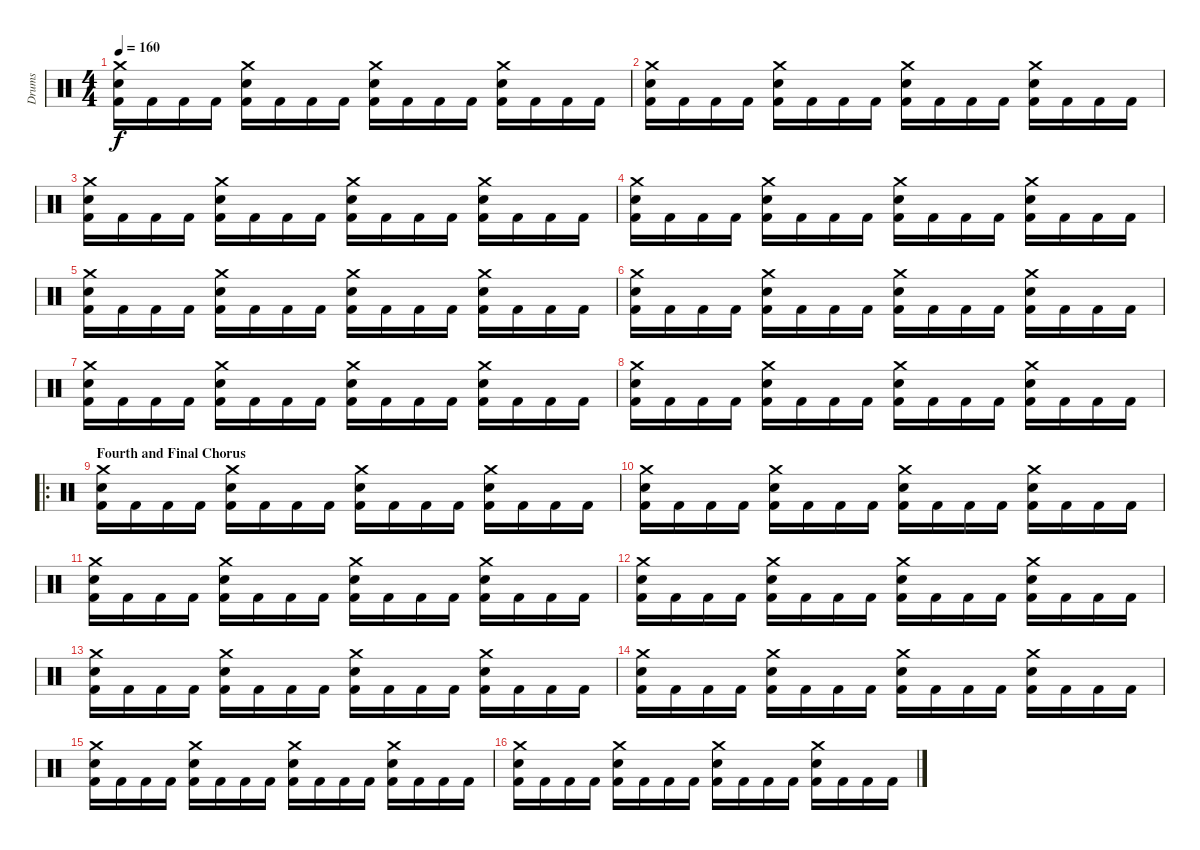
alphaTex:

\track ("Drums" "Drums") {instrument percussion}
\staff {score}
\articulation defaults
\ts (4 4)
\tempo 160
\clef neutral
\ks c
("Crash medium (hit)" "Electric Snare (hit)" "Kick (hit) 2").16{dy f} "Kick (hit) 2".16 "Kick (hit) 2".16 "Kick (hit) 2".16 ("Crash medium (hit)" "Electric Snare (hit)" "Kick (hit) 2").16 "Kick (hit) 2".16 "Kick (hit) 2".16 "Kick (hit) 2".16 ("Crash medium (hit)" "Electric Snare (hit)" "Kick (hit) 2").16 "Kick (hit) 2".16 "Kick (hit) 2".16 "Kick (hit) 2".16 ("Crash medium (hit)" "Electric Snare (hit)" "Kick (hit) 2").16 "Kick (hit) 2".16 "Kick (hit) 2".16 "Kick (hit) 2".16 |
("Crash medium (hit)" "Electric Snare (hit)" "Kick (hit) 2").16 "Kick (hit) 2".16 "Kick (hit) 2".16 "Kick (hit) 2".16 ("Crash medium (hit)" "Electric Snare (hit)" "Kick (hit) 2").16 "Kick (hit) 2".16 "Kick (hit) 2".16 "Kick (hit) 2".16 ("Crash medium (hit)" "Electric Snare (hit)" "Kick (hit) 2").16 "Kick (hit) 2".16 "Kick (hit) 2".16 "Kick (hit) 2".16 ("Crash medium (hit)" "Electric Snare (hit)" "Kick (hit) 2").16 "Kick (hit) 2".16 "Kick (hit) 2".16 "Kick (hit) 2".16 |
("Crash medium (hit)" "Electric Snare (hit)" "Kick (hit) 2").16 "Kick (hit) 2".16 "Kick (hit) 2".16 "Kick (hit) 2".16 ("Crash medium (hit)" "Electric Snare (hit)" "Kick (hit) 2").16 "Kick (hit) 2".16 "Kick (hit) 2".16 "Kick (hit) 2".16 ("Crash medium (hit)" "Electric Snare (hit)" "Kick (hit) 2").16 "Kick (hit) 2".16 "Kick (hit) 2".16 "Kick (hit) 2".16 ("Crash medium (hit)" "Electric Snare (hit)" "Kick (hit) 2").16 "Kick (hit) 2".16 "Kick (hit) 2".16 "Kick (hit) 2".16 |
("Crash medium (hit)" "Electric Snare (hit)" "Kick (hit) 2").16 "Kick (hit) 2".16 "Kick (hit) 2".16 "Kick (hit) 2".16 ("Crash medium (hit)" "Electric Snare (hit)" "Kick (hit) 2").16 "Kick (hit) 2".16 "Kick (hit) 2".16 "Kick (hit) 2".16 ("Crash medium (hit)" "Electric Snare (hit)" "Kick (hit) 2").16 "Kick (hit) 2".16 "Kick (hit) 2".16 "Kick (hit) 2".16 ("Crash medium (hit)" "Electric Snare (hit)" "Kick (hit) 2").16 "Kick (hit) 2".16 "Kick (hit) 2".16 "Kick (hit) 2".16 |
("Crash medium (hit)" "Electric Snare (hit)" "Kick (hit) 2").16 "Kick (hit) 2".16 "Kick (hit) 2".16 "Kick (hit) 2".16 ("Crash medium (hit)" "Electric Snare (hit)" "Kick (hit) 2").16 "Kick (hit) 2".16 "Kick (hit) 2".16 "Kick (hit) 2".16 ("Crash medium (hit)" "Electric Snare (hit)" "Kick (hit) 2").16 "Kick (hit) 2".16 "Kick (hit) 2".16 "Kick (hit) 2".16 ("Crash medium (hit)" "Electric Snare (hit)" "Kick (hit) 2").16 "Kick (hit) 2".16 "Kick (hit) 2".16 "Kick (hit) 2".16 |
("Crash medium (hit)" "Electric Snare (hit)" "Kick (hit) 2").16 "Kick (hit) 2".16 "Kick (hit) 2".16 "Kick (hit) 2".16 ("Crash medium (hit)" "Electric Snare (hit)" "Kick (hit) 2").16 "Kick (hit) 2".16 "Kick (hit) 2".16 "Kick (hit) 2".16 ("Crash medium (hit)" "Electric Snare (hit)" "Kick (hit) 2").16 "Kick (hit) 2".16 "Kick (hit) 2".16 "Kick (hit) 2".16 ("Crash medium (hit)" "Electric Snare (hit)" "Kick (hit) 2").16 "Kick (hit) 2".16 "Kick (hit) 2".16 "Kick (hit) 2".16 |
("Crash medium (hit)" "Electric Snare (hit)" "Kick (hit) 2").16 "Kick (hit) 2".16 "Kick (hit) 2".16 "Kick (hit) 2".16 ("Crash medium (hit)" "Electric Snare (hit)" "Kick (hit) 2").16 "Kick (hit) 2".16 "Kick (hit) 2".16 "Kick (hit) 2".16 ("Crash medium (hit)" "Electric Snare (hit)" "Kick (hit) 2").16 "Kick (hit) 2".16 "Kick (hit) 2".16 "Kick (hit) 2".16 ("Crash medium (hit)" "Electric Snare (hit)" "Kick (hit) 2").16 "Kick (hit) 2".16 "Kick (hit) 2".16 "Kick (hit) 2".16 |
("Crash medium (hit)" "Electric Snare (hit)" "Kick (hit) 2").16 "Kick (hit) 2".16 "Kick (hit) 2".16 "Kick (hit) 2".16 ("Crash medium (hit)" "Electric Snare (hit)" "Kick (hit) 2").16 "Kick (hit) 2".16 "Kick (hit) 2".16 "Kick (hit) 2".16 ("Crash medium (hit)" "Electric Snare (hit)" "Kick (hit) 2").16 "Kick (hit) 2".16 "Kick (hit) 2".16 "Kick (hit) 2".16 ("Crash medium (hit)" "Electric Snare (hit)" "Kick (hit) 2").16 "Kick (hit) 2".16 "Kick (hit) 2".16 "Kick (hit) 2".16 |
\ro
\section ("" "Fourth and Final Chorus")
("Crash medium (hit)" "Electric Snare (hit)" "Kick (hit) 2").16 "Kick (hit) 2".16 "Kick (hit) 2".16 "Kick (hit) 2".16 ("Crash medium (hit)" "Electric Snare (hit)" "Kick (hit) 2").16 "Kick (hit) 2".16 "Kick (hit) 2".16 "Kick (hit) 2".16 ("Crash medium (hit)" "Electric Snare (hit)" "Kick (hit) 2").16 "Kick (hit) 2".16 "Kick (hit) 2".16 "Kick (hit) 2".16 ("Crash medium (hit)" "Electric Snare (hit)" "Kick (hit) 2").16 "Kick (hit) 2".16 "Kick (hit) 2".16 "Kick (hit) 2".16 |
("Crash medium (hit)" "Electric Snare (hit)" "Kick (hit) 2").16 "Kick (hit) 2".16 "Kick (hit) 2".16 "Kick (hit) 2".16 ("Crash medium (hit)" "Electric Snare (hit)" "Kick (hit) 2").16 "Kick (hit) 2".16 "Kick (hit) 2".16 "Kick (hit) 2".16 ("Crash medium (hit)" "Electric Snare (hit)" "Kick (hit) 2").16 "Kick (hit) 2".16 "Kick (hit) 2".16 "Kick (hit) 2".16 ("Crash medium (hit)" "Electric Snare (hit)" "Kick (hit) 2").16 "Kick (hit) 2".16 "Kick (hit) 2".16 "Kick (hit) 2".16 |
("Crash medium (hit)" "Electric Snare (hit)" "Kick (hit) 2").16 "Kick (hit) 2".16 "Kick (hit) 2".16 "Kick (hit) 2".16 ("Crash medium (hit)" "Electric Snare (hit)" "Kick (hit) 2").16 "Kick (hit) 2".16 "Kick (hit) 2".16 "Kick (hit) 2".16 ("Crash medium (hit)" "Electric Snare (hit)" "Kick (hit) 2").16 "Kick (hit) 2".16 "Kick (hit) 2".16 "Kick (hit) 2".16 ("Crash medium (hit)" "Electric Snare (hit)" "Kick (hit) 2").16 "Kick (hit) 2".16 "Kick (hit) 2".16 "Kick (hit) 2".16 |
("Crash medium (hit)" "Electric Snare (hit)" "Kick (hit) 2").16 "Kick (hit) 2".16 "Kick (hit) 2".16 "Kick (hit) 2".16 ("Crash medium (hit)" "Electric Snare (hit)" "Kick (hit) 2").16 "Kick (hit) 2".16 "Kick (hit) 2".16 "Kick (hit) 2".16 ("Crash medium (hit)" "Electric Snare (hit)" "Kick (hit) 2").16 "Kick (hit) 2".16 "Kick (hit) 2".16 "Kick (hit) 2".16 ("Crash medium (hit)" "Electric Snare (hit)" "Kick (hit) 2").16 "Kick (hit) 2".16 "Kick (hit) 2".16 "Kick (hit) 2".16 |
("Crash medium (hit)" "Electric Snare (hit)" "Kick (hit) 2").16 "Kick (hit) 2".16 "Kick (hit) 2".16 "Kick (hit) 2".16 ("Crash medium (hit)" "Electric Snare (hit)" "Kick (hit) 2").16 "Kick (hit) 2".16 "Kick (hit) 2".16 "Kick (hit) 2".16 ("Crash medium (hit)" "Electric Snare (hit)" "Kick (hit) 2").16 "Kick (hit) 2".16 "Kick (hit) 2".16 "Kick (hit) 2".16 ("Crash medium (hit)" "Electric Snare (hit)" "Kick (hit) 2").16 "Kick (hit) 2".16 "Kick (hit) 2".16 "Kick (hit) 2".16 |
("Crash medium (hit)" "Electric Snare (hit)" "Kick (hit) 2").16 "Kick (hit) 2".16 "Kick (hit) 2".16 "Kick (hit) 2".16 ("Crash medium (hit)" "Electric Snare (hit)" "Kick (hit) 2").16 "Kick (hit) 2".16 "Kick (hit) 2".16 "Kick (hit) 2".16 ("Crash medium (hit)" "Electric Snare (hit)" "Kick (hit) 2").16 "Kick (hit) 2".16 "Kick (hit) 2".16 "Kick (hit) 2".16 ("Crash medium (hit)" "Electric Snare (hit)" "Kick (hit) 2").16 "Kick (hit) 2".16 "Kick (hit) 2".16 "Kick (hit) 2".16 |
("Crash medium (hit)" "Electric Snare (hit)" "Kick (hit) 2").16 "Kick (hit) 2".16 "Kick (hit) 2".16 "Kick (hit) 2".16 ("Crash medium (hit)" "Electric Snare (hit)" "Kick (hit) 2").16 "Kick (hit) 2".16 "Kick (hit) 2".16 "Kick (hit) 2".16 ("Crash medium (hit)" "Electric Snare (hit)" "Kick (hit) 2").16 "Kick (hit) 2".16 "Kick (hit) 2".16 "Kick (hit) 2".16 ("Crash medium (hit)" "Electric Snare (hit)" "Kick (hit) 2").16 "Kick (hit) 2".16 "Kick (hit) 2".16 "Kick (hit) 2".16 |
("Crash medium (hit)" "Electric Snare (hit)" "Kick (hit) 2").16 "Kick (hit) 2".16 "Kick (hit) 2".16 "Kick (hit) 2".16 ("Crash medium (hit)" "Electric Snare (hit)" "Kick (hit) 2").16 "Kick (hit) 2".16 "Kick (hit) 2".16 "Kick (hit) 2".16 ("Crash medium (hit)" "Electric Snare (hit)" "Kick (hit) 2").16 "Kick (hit) 2".16 "Kick (hit) 2".16 "Kick (hit) 2".16 ("Crash medium (hit)" "Electric Snare (hit)" "Kick (hit) 2").16 "Kick (hit) 2".16 "Kick (hit) 2".16 "Kick (hit) 2".16
